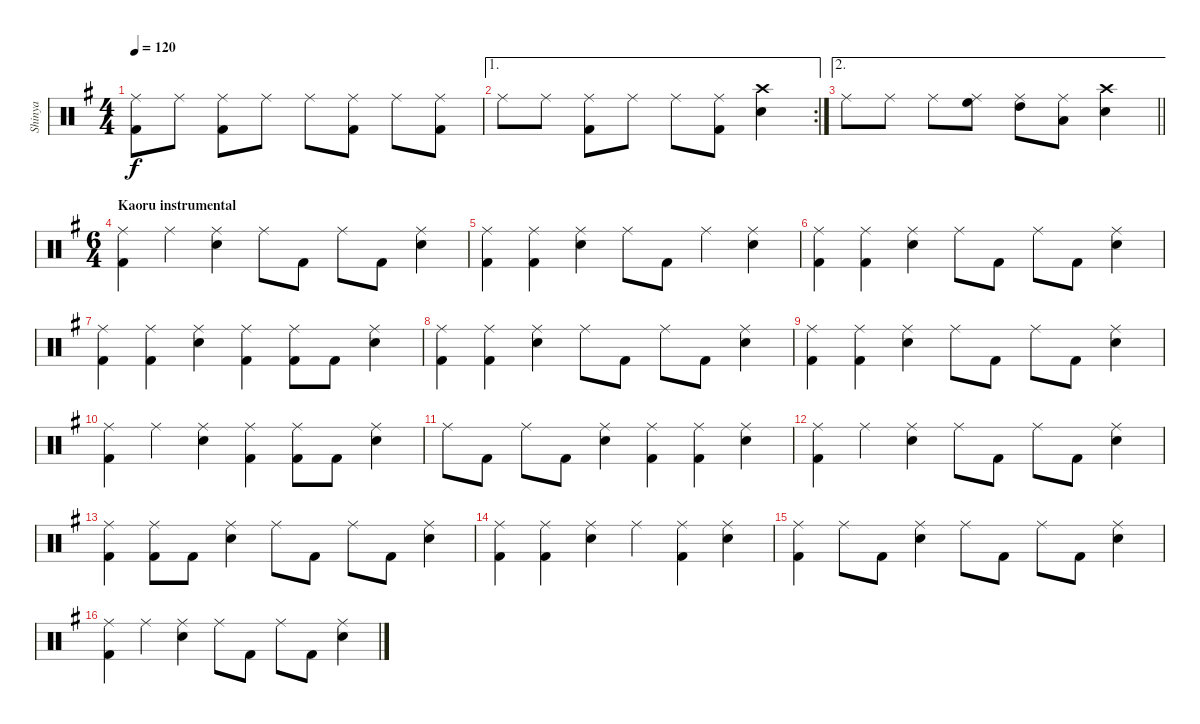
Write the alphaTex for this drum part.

\track ("Shinya" "Shinya") {instrument percussion}
\staff {score}
\articulation defaults
\ts (4 4)
\tempo 120
\clef neutral
\ks g
("Ride (middle)" "Kick (hit) 2").8{dy f} "Ride (middle)".8 ("Ride (middle)" "Kick (hit) 2").8 "Ride (middle)".8 "Ride (middle)".8 ("Ride (middle)" "Kick (hit) 2").8 "Ride (middle)".8 ("Ride (middle)" "Kick (hit) 2").8 |
\ae 1
\rc 2 "Ride (middle)".8 "Ride (middle)".8
("Ride (middle)" "Kick (hit) 2").8 "Ride (middle)".8 "Ride (middle)".8 ("Ride (middle)" "Kick (hit) 2").8 ("Crash high (hit)" "Snare (hit) 2").4 |
\ae 2
\barLineRight lightlight "Ride (middle)".8 "Ride (middle)".8 "Ride (middle)".8
("Ride (middle)" "High Floor Tom (hit)").8 ("Ride (middle)" "High Tom (hit)").8 ("Ride (middle)" "Low Tom (hit)").8 ("Crash high (hit)" "Snare (hit) 2").4 |
\ts (6 4)
\section ("" "Kaoru instrumental")
("Ride (middle)" "Kick (hit) 2").4 "Ride (middle)".4 ("Ride (middle)" "Snare (hit) 2").4 "Ride (middle)".8 "Kick (hit) 2".8 "Ride (middle)".8 "Kick (hit) 2".8 ("Ride (middle)" "Snare (hit) 2").4 |
("Ride (middle)" "Kick (hit) 2").4 ("Ride (middle)" "Kick (hit) 2").4 ("Ride (middle)" "Snare (hit) 2").4 "Ride (middle)".8 "Kick (hit) 2".8 "Ride (middle)".4 ("Ride (middle)" "Snare (hit) 2").4 |
("Ride (middle)" "Kick (hit) 2").4 ("Ride (middle)" "Kick (hit) 2").4 ("Ride (middle)" "Snare (hit) 2").4 "Ride (middle)".8 "Kick (hit) 2".8 "Ride (middle)".8 "Kick (hit) 2".8 ("Ride (middle)" "Snare (hit) 2").4 |
("Ride (middle)" "Kick (hit) 2").4 ("Ride (middle)" "Kick (hit) 2").4 ("Ride (middle)" "Snare (hit) 2").4 ("Ride (middle)" "Kick (hit) 2").4 ("Ride (middle)" "Kick (hit) 2").8 "Kick (hit) 2".8 ("Ride (middle)" "Snare (hit) 2").4 |
("Ride (middle)" "Kick (hit) 2").4 ("Ride (middle)" "Kick (hit) 2").4 ("Ride (middle)" "Snare (hit) 2").4 "Ride (middle)".8 "Kick (hit) 2".8 "Ride (middle)".8 "Kick (hit) 2".8 ("Ride (middle)" "Snare (hit) 2").4 |
("Ride (middle)" "Kick (hit) 2").4 ("Ride (middle)" "Kick (hit) 2").4 ("Ride (middle)" "Snare (hit) 2").4 "Ride (middle)".8 "Kick (hit) 2".8 "Ride (middle)".8 "Kick (hit) 2".8 ("Ride (middle)" "Snare (hit) 2").4 |
("Ride (middle)" "Kick (hit) 2").4 "Ride (middle)".4 ("Ride (middle)" "Snare (hit) 2").4 ("Ride (middle)" "Kick (hit) 2").4 ("Ride (middle)" "Kick (hit) 2").8 "Kick (hit) 2".8 ("Ride (middle)" "Snare (hit) 2").4 |
"Ride (middle)".8 "Kick (hit) 2".8 "Ride (middle)".8 "Kick (hit) 2".8 ("Ride (middle)" "Snare (hit) 2").4 ("Ride (middle)" "Kick (hit) 2").4 ("Ride (middle)" "Kick (hit) 2").4 ("Ride (middle)" "Snare (hit) 2").4 |
("Ride (middle)" "Kick (hit) 2").4 "Ride (middle)".4 ("Ride (middle)" "Snare (hit) 2").4 "Ride (middle)".8 "Kick (hit) 2".8 "Ride (middle)".8 "Kick (hit) 2".8 ("Ride (middle)" "Snare (hit) 2").4 |
("Ride (middle)" "Kick (hit) 2").4 ("Ride (middle)" "Kick (hit) 2").8 "Kick (hit) 2".8 ("Ride (middle)" "Snare (hit) 2").4 "Ride (middle)".8 "Kick (hit) 2".8 "Ride (middle)".8 "Kick (hit) 2".8 ("Ride (middle)" "Snare (hit) 2").4 |
("Ride (middle)" "Kick (hit) 2").4 ("Ride (middle)" "Kick (hit) 2").4 ("Ride (middle)" "Snare (hit) 2").4 "Ride (middle)".4 ("Ride (middle)" "Kick (hit) 2").4 ("Ride (middle)" "Snare (hit) 2").4 |
("Ride (middle)" "Kick (hit) 2").4 "Ride (middle)".8 "Kick (hit) 2".8 ("Ride (middle)" "Snare (hit) 2").4 "Ride (middle)".8 "Kick (hit) 2".8 "Ride (middle)".8 "Kick (hit) 2".8 ("Ride (middle)" "Snare (hit) 2").4 |
("Ride (middle)" "Kick (hit) 2").4 "Ride (middle)".4 ("Ride (middle)" "Snare (hit) 2").4 "Ride (middle)".8 "Kick (hit) 2".8 "Ride (middle)".8 "Kick (hit) 2".8 ("Ride (middle)" "Snare (hit) 2").4
